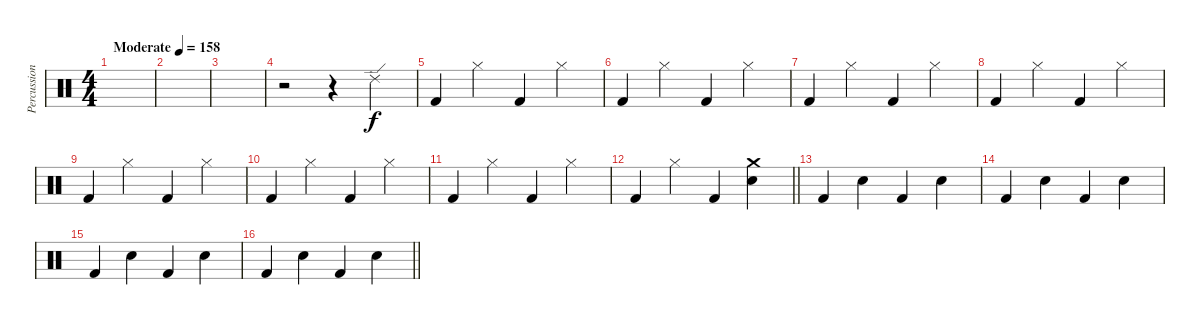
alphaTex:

\track ("Percussions" "Percussion") {instrument percussion}
\staff {score}
\articulation defaults
\ts (4 4)
\tempo (158 "Moderate")
\clef neutral
\ks c
|
|
|
r.2 r.4 "Ride (edge) 2".4 |
"Kick (hit) 2".4 "Hi-Hat (closed)".4 "Kick (hit) 2".4 "Hi-Hat (closed)".4 |
"Kick (hit) 2".4 "Hi-Hat (closed)".4 "Kick (hit) 2".4 "Hi-Hat (closed)".4 |
"Kick (hit) 2".4 "Hi-Hat (closed)".4 "Kick (hit) 2".4 "Hi-Hat (closed)".4 |
"Kick (hit) 2".4 "Hi-Hat (closed)".4 "Kick (hit) 2".4 "Hi-Hat (closed)".4 |
"Kick (hit) 2".4 "Hi-Hat (closed)".4 "Kick (hit) 2".4 "Hi-Hat (closed)".4 |
"Kick (hit) 2".4 "Hi-Hat (closed)".4 "Kick (hit) 2".4 "Hi-Hat (closed)".4 |
"Kick (hit) 2".4 "Hi-Hat (closed)".4 "Kick (hit) 2".4 "Hi-Hat (closed)".4 |
\barLineRight lightlight "Kick (hit) 2".4 "Hi-Hat (closed)".4 "Kick (hit) 2".4
("Crash medium (hit)" "Electric Snare (hit)").4 |
"Kick (hit) 2".4{volume 16} "Electric Snare (hit)".4 "Kick (hit) 2".4 "Electric Snare (hit)".4 |
"Kick (hit) 2".4 "Electric Snare (hit)".4 "Kick (hit) 2".4 "Electric Snare (hit)".4 |
"Kick (hit) 2".4{volume 16} "Electric Snare (hit)".4 "Kick (hit) 2".4 "Electric Snare (hit)".4 |
\barLineRight lightlight "Kick (hit) 2".4 "Electric Snare (hit)".4 "Kick (hit) 2".4 "Electric Snare (hit)".4
